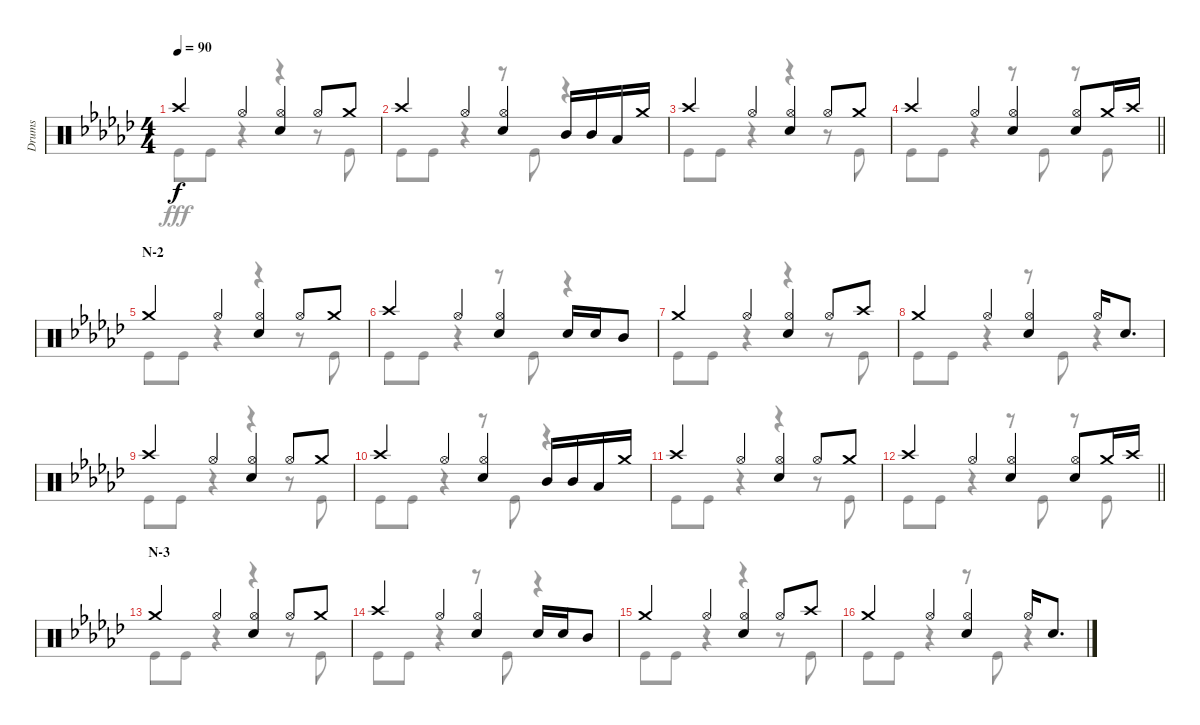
\track ("Drums" "Drums") {instrument percussion}
\staff {score}
\articulation defaults
\voice
\ts (4 4)
\tempo 90
\clef neutral
\ks gb "Crash high (hit)".4{dy f} "Hi-Hat (open)".4
("Hi-Hat (open)" "Snare (hit) 2").4 "Hi-Hat (open)".8 "Crash medium (hit)".8 |
"Crash high (hit)".4 "Hi-Hat (open)".4 ("Hi-Hat (open)" "Snare (hit) 2").4 "Mid Tom (hit)".16 "Mid Tom (hit)".16 "Low Tom (hit)".16 "Crash medium (hit)".16 |
"Crash high (hit)".4 "Hi-Hat (open)".4 ("Hi-Hat (open)" "Snare (hit) 2").4 "Hi-Hat (open)".8 "Crash medium (hit)".8 |
\barLineRight lightlight "Crash high (hit)".4 "Hi-Hat (open)".4
("Hi-Hat (open)" "Snare (hit) 2").4 ("Hi-Hat (open)" "Snare (hit) 2").8 "Crash medium (hit)".16 "Crash high (hit)".16 |
\section ("" "N-2")
"Crash medium (hit)".4 "Hi-Hat (open)".4 ("Hi-Hat (open)" "Snare (hit) 2").4 "Hi-Hat (open)".8 "Crash medium (hit)".8 |
"Crash high (hit)".4 "Hi-Hat (open)".4 ("Hi-Hat (open)" "Snare (hit) 2").4 "Snare (hit) 2".16 "Snare (hit) 2".16 "Mid Tom (hit)".8 |
"Crash medium (hit)".4 "Hi-Hat (open)".4 ("Hi-Hat (open)" "Snare (hit) 2").4 "Hi-Hat (open)".8 "Crash high (hit)".8 |
"Crash medium (hit)".4 "Hi-Hat (open)".4 ("Hi-Hat (open)" "Snare (hit) 2").4 "Hi-Hat (open)".16 "Snare (hit) 2".8{d} |
"Crash high (hit)".4 "Hi-Hat (open)".4 ("Hi-Hat (open)" "Snare (hit) 2").4 "Hi-Hat (open)".8 "Crash medium (hit)".8 |
"Crash high (hit)".4 "Hi-Hat (open)".4 ("Hi-Hat (open)" "Snare (hit) 2").4 "Mid Tom (hit)".16 "Mid Tom (hit)".16 "Low Tom (hit)".16 "Crash medium (hit)".16 |
"Crash high (hit)".4 "Hi-Hat (open)".4 ("Hi-Hat (open)" "Snare (hit) 2").4 "Hi-Hat (open)".8 "Crash medium (hit)".8 |
\barLineRight lightlight "Crash high (hit)".4 "Hi-Hat (open)".4
("Hi-Hat (open)" "Snare (hit) 2").4 ("Hi-Hat (open)" "Snare (hit) 2").8 "Crash medium (hit)".16 "Crash high (hit)".16 |
\section ("" "N-3")
"Crash medium (hit)".4 "Hi-Hat (open)".4 ("Hi-Hat (open)" "Snare (hit) 2").4 "Hi-Hat (open)".8 "Crash medium (hit)".8 |
"Crash high (hit)".4 "Hi-Hat (open)".4 ("Hi-Hat (open)" "Snare (hit) 2").4 "Snare (hit) 2".16 "Snare (hit) 2".16 "Mid Tom (hit)".8 |
"Crash medium (hit)".4 "Hi-Hat (open)".4 ("Hi-Hat (open)" "Snare (hit) 2").4 "Hi-Hat (open)".8 "Crash high (hit)".8 |
"Crash medium (hit)".4 "Hi-Hat (open)".4 ("Hi-Hat (open)" "Snare (hit) 2").4 "Hi-Hat (open)".16 "Snare (hit) 2".8{d}
\voice
\clef neutral
\ottava regular
\simile none
\ks gb "Kick (hit)".8{dy fff} "Kick (hit)".8
r.4 r.4 r.8 "Kick (hit)".8 |
"Kick (hit)".8 "Kick (hit)".8 r.4 r.8 "Kick (hit)".8 r.4 |
"Kick (hit)".8 "Kick (hit)".8 r.4 r.4 r.8 "Kick (hit)".8 |
\barLineRight lightlight "Kick (hit)".8 "Kick (hit)".8
r.4 r.8 "Kick (hit)".8 r.8 "Kick (hit)".8 |
"Kick (hit)".8 "Kick (hit)".8 r.4 r.4 r.8 "Kick (hit)".8 |
"Kick (hit)".8 "Kick (hit)".8 r.4 r.8 "Kick (hit)".8 r.4 |
"Kick (hit)".8 "Kick (hit)".8 r.4 r.4 r.8 "Kick (hit)".8 |
"Kick (hit)".8 "Kick (hit)".8 r.4 r.8 "Kick (hit)".8 r.4 |
"Kick (hit)".8 "Kick (hit)".8 r.4 r.4 r.8 "Kick (hit)".8 |
"Kick (hit)".8 "Kick (hit)".8 r.4 r.8 "Kick (hit)".8 r.4 |
"Kick (hit)".8 "Kick (hit)".8 r.4 r.4 r.8 "Kick (hit)".8 |
\barLineRight lightlight "Kick (hit)".8 "Kick (hit)".8
r.4 r.8 "Kick (hit)".8 r.8 "Kick (hit)".8 |
"Kick (hit)".8 "Kick (hit)".8 r.4 r.4 r.8 "Kick (hit)".8 |
"Kick (hit)".8 "Kick (hit)".8 r.4 r.8 "Kick (hit)".8 r.4 |
"Kick (hit)".8 "Kick (hit)".8 r.4 r.4 r.8 "Kick (hit)".8 |
"Kick (hit)".8 "Kick (hit)".8 r.4 r.8 "Kick (hit)".8 r.4
